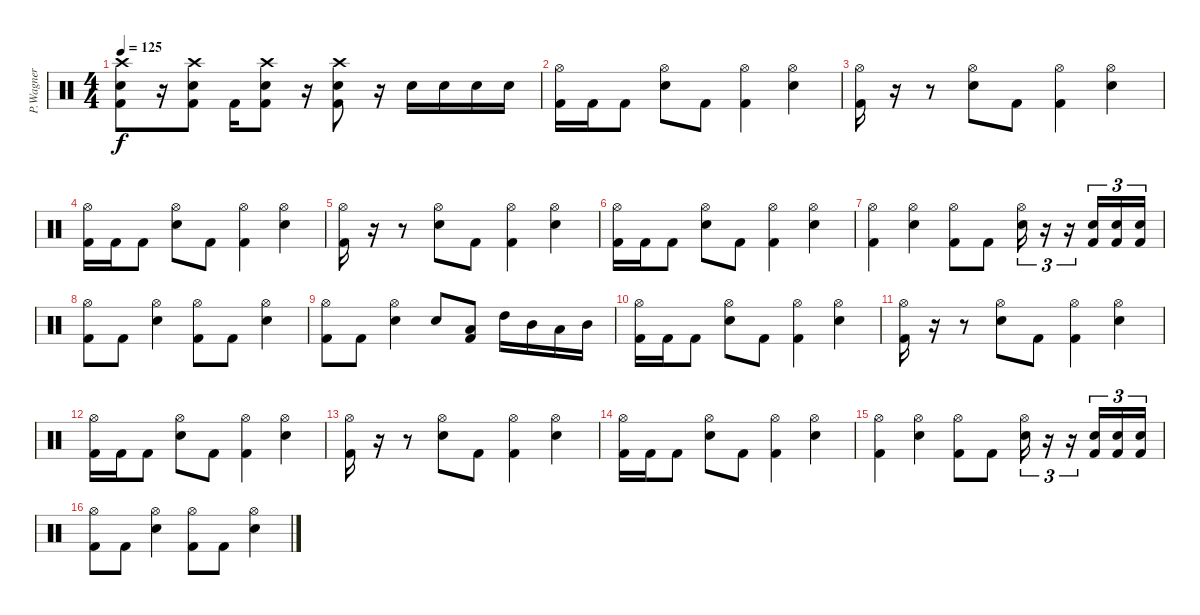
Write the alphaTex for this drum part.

\track ("P.Wagner" "P.Wagner") {instrument percussion}
\staff {score}
\articulation defaults
\ts (4 4)
\tempo 125
\clef neutral
\ks c
("Kick (hit) 2" "Electric Snare (hit)" "Crash high (hit)").8{dy f} r.16 ("Kick (hit) 2" "Electric Snare (hit)" "Crash high (hit)").8 "Kick (hit) 2".16 ("Kick (hit) 2" "Electric Snare (hit)" "Crash high (hit)").8 r.16 ("Kick (hit) 2" "Electric Snare (hit)" "Crash high (hit)").8 r.16 "Electric Snare (hit)".16 "Electric Snare (hit)".16 "Electric Snare (hit)".16 "Electric Snare (hit)".16 |
("Kick (hit) 2" "Hi-Hat (open)").16 "Kick (hit) 2".16 "Kick (hit) 2".8 ("Electric Snare (hit)" "Hi-Hat (open)").8 "Kick (hit) 2".8 ("Kick (hit) 2" "Hi-Hat (open)").4 ("Hi-Hat (open)" "Electric Snare (hit)").4 |
("Kick (hit) 2" "Hi-Hat (open)").16 r.16 r.8 ("Electric Snare (hit)" "Hi-Hat (open)").8 "Kick (hit) 2".8 ("Kick (hit) 2" "Hi-Hat (open)").4 ("Hi-Hat (open)" "Electric Snare (hit)").4 |
("Kick (hit) 2" "Hi-Hat (open)").16 "Kick (hit) 2".16 "Kick (hit) 2".8 ("Electric Snare (hit)" "Hi-Hat (open)").8 "Kick (hit) 2".8 ("Kick (hit) 2" "Hi-Hat (open)").4 ("Hi-Hat (open)" "Electric Snare (hit)").4 |
("Kick (hit) 2" "Hi-Hat (open)").16 r.16 r.8 ("Electric Snare (hit)" "Hi-Hat (open)").8 "Kick (hit) 2".8 ("Kick (hit) 2" "Hi-Hat (open)").4 ("Hi-Hat (open)" "Electric Snare (hit)").4 |
("Kick (hit) 2" "Hi-Hat (open)").16 "Kick (hit) 2".16 "Kick (hit) 2".8 ("Electric Snare (hit)" "Hi-Hat (open)").8 "Kick (hit) 2".8 ("Kick (hit) 2" "Hi-Hat (open)").4 ("Hi-Hat (open)" "Electric Snare (hit)").4 |
("Kick (hit) 2" "Hi-Hat (open)").4 ("Electric Snare (hit)" "Hi-Hat (open)").4 ("Kick (hit) 2" "Hi-Hat (open)").8 "Kick (hit) 2".8 ("Electric Snare (hit)" "Hi-Hat (open)").16{tu (3 2)} r.16{tu (3 2)} r.16{tu (3 2)} ("Electric Snare (hit)" "Kick (hit) 2").16{tu (3 2)} ("Electric Snare (hit)" "Kick (hit) 2").16{tu (3 2)} ("Electric Snare (hit)" "Kick (hit) 2").16{tu (3 2)} |
("Kick (hit) 2" "Hi-Hat (open)").8 "Kick (hit) 2".8 ("Hi-Hat (open)" "Electric Snare (hit)").4 ("Kick (hit) 2" "Hi-Hat (open)").8 "Kick (hit) 2".8 ("Hi-Hat (open)" "Electric Snare (hit)").4 |
("Kick (hit) 2" "Hi-Hat (open)").8 "Kick (hit) 2".8 ("Hi-Hat (open)" "Electric Snare (hit)").4 "Electric Snare (hit)".8 ("Low Tom (hit)" "Kick (hit) 2").8 "High Tom (hit)".16 "Mid Tom (hit)".16 "Low Tom (hit)".16 "Mid Tom (hit)".16 |
("Kick (hit) 2" "Hi-Hat (open)").16 "Kick (hit) 2".16 "Kick (hit) 2".8 ("Electric Snare (hit)" "Hi-Hat (open)").8 "Kick (hit) 2".8 ("Kick (hit) 2" "Hi-Hat (open)").4 ("Hi-Hat (open)" "Electric Snare (hit)").4 |
("Kick (hit) 2" "Hi-Hat (open)").16 r.16 r.8 ("Electric Snare (hit)" "Hi-Hat (open)").8 "Kick (hit) 2".8 ("Kick (hit) 2" "Hi-Hat (open)").4 ("Hi-Hat (open)" "Electric Snare (hit)").4 |
("Kick (hit) 2" "Hi-Hat (open)").16 "Kick (hit) 2".16 "Kick (hit) 2".8 ("Electric Snare (hit)" "Hi-Hat (open)").8 "Kick (hit) 2".8 ("Kick (hit) 2" "Hi-Hat (open)").4 ("Hi-Hat (open)" "Electric Snare (hit)").4 |
("Kick (hit) 2" "Hi-Hat (open)").16 r.16 r.8 ("Electric Snare (hit)" "Hi-Hat (open)").8 "Kick (hit) 2".8 ("Kick (hit) 2" "Hi-Hat (open)").4 ("Hi-Hat (open)" "Electric Snare (hit)").4 |
("Kick (hit) 2" "Hi-Hat (open)").16 "Kick (hit) 2".16 "Kick (hit) 2".8 ("Electric Snare (hit)" "Hi-Hat (open)").8 "Kick (hit) 2".8 ("Kick (hit) 2" "Hi-Hat (open)").4 ("Hi-Hat (open)" "Electric Snare (hit)").4 |
("Kick (hit) 2" "Hi-Hat (open)").4 ("Electric Snare (hit)" "Hi-Hat (open)").4 ("Kick (hit) 2" "Hi-Hat (open)").8 "Kick (hit) 2".8 ("Electric Snare (hit)" "Hi-Hat (open)").16{tu (3 2)} r.16{tu (3 2)} r.16{tu (3 2)} ("Electric Snare (hit)" "Kick (hit) 2").16{tu (3 2)} ("Electric Snare (hit)" "Kick (hit) 2").16{tu (3 2)} ("Electric Snare (hit)" "Kick (hit) 2").16{tu (3 2)} |
("Kick (hit) 2" "Hi-Hat (open)").8 "Kick (hit) 2".8 ("Hi-Hat (open)" "Electric Snare (hit)").4 ("Kick (hit) 2" "Hi-Hat (open)").8 "Kick (hit) 2".8 ("Hi-Hat (open)" "Electric Snare (hit)").4
